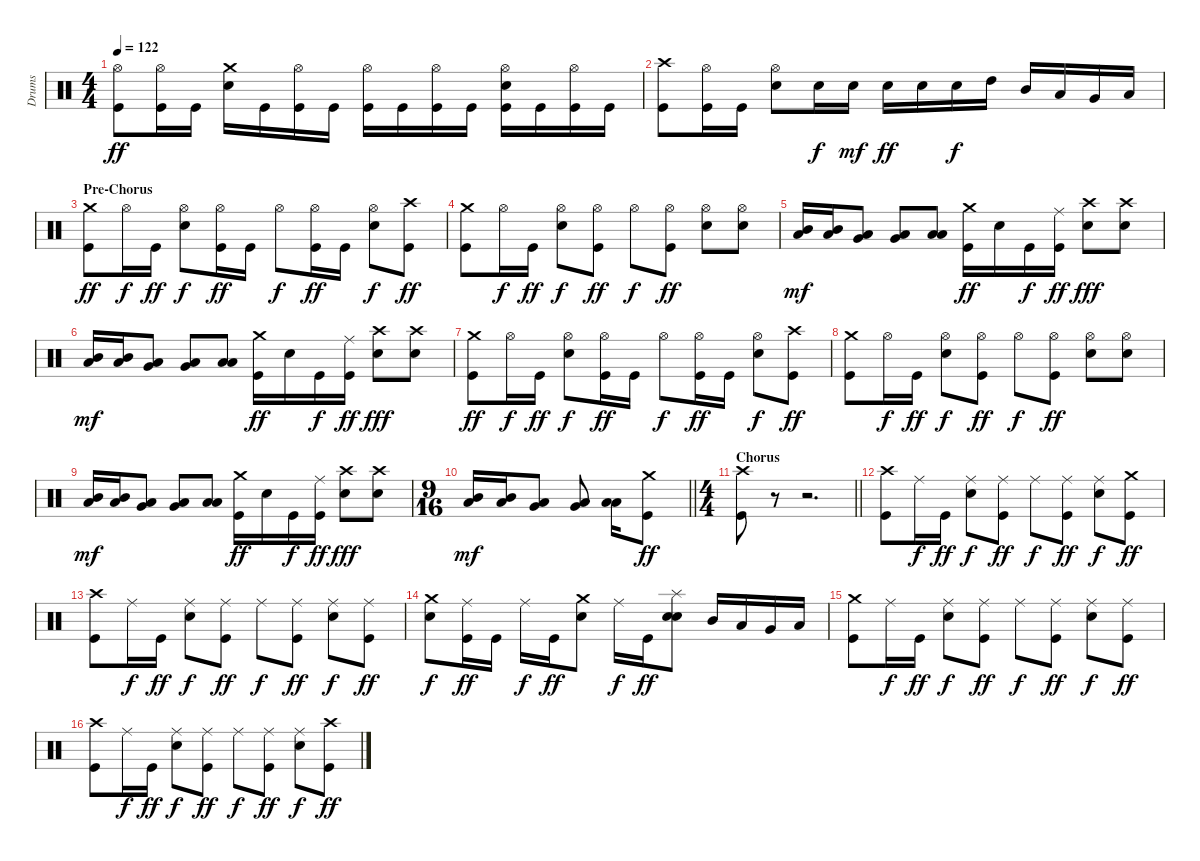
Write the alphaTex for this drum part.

\track ("Drums" "Drums") {instrument percussion}
\staff {score}
\articulation defaults
\ts (4 4)
\tempo 122
\clef neutral
\ks c
("Hi-Hat (open)" "Kick (hit)").8{dy ff} ("Hi-Hat (open)" "Kick (hit)").16 "Kick (hit)".16 ("Crash medium (hit)" "Snare (hit) 2").16 "Kick (hit)".16 ("Hi-Hat (open)" "Kick (hit)").16 "Kick (hit)".16 ("Hi-Hat (open)" "Kick (hit)").16 "Kick (hit)".16 ("Hi-Hat (open)" "Kick (hit)").16 "Kick (hit)".16 ("Hi-Hat (open)" "Snare (hit) 2" "Kick (hit)").16 "Kick (hit)".16 ("Hi-Hat (open)" "Kick (hit)").16 "Kick (hit)".16 |
("Crash high (hit)" "Kick (hit)").8 ("Hi-Hat (open)" "Kick (hit)").16 "Kick (hit)".16 ("Hi-Hat (open)" "Snare (hit) 2").8 "Snare (hit) 2".16{dy f} "Snare (hit) 2".16{dy mf} "Snare (hit) 2".16{dy ff} "Snare (hit) 2".16 "Snare (hit) 2".16{dy f} "High Tom (hit)".16 "Mid Tom (hit)".16 "Low Tom (hit)".16 "Very Low Tom (hit)".16 "Low Floor Tom (hit)".16 |
\section ("" "Pre-Chorus")
("Crash medium (hit)" "Kick (hit)").8{dy ff} "Hi-Hat (open)".16{dy f} "Kick (hit)".16{dy ff} ("Hi-Hat (open)" "Snare (hit) 2").8{dy f} ("Hi-Hat (open)" "Kick (hit)").16{dy ff} "Kick (hit)".16 "Hi-Hat (open)".8{dy f} ("Hi-Hat (open)" "Kick (hit)").16{dy ff} "Kick (hit)".16 ("Hi-Hat (open)" "Snare (hit) 2").8{dy f} ("Crash high (hit)" "Kick (hit)").8{dy ff} |
("Crash medium (hit)" "Kick (hit)").8 "Hi-Hat (open)".16{dy f} "Kick (hit)".16{dy ff} ("Hi-Hat (open)" "Snare (hit) 2").8{dy f} ("Hi-Hat (open)" "Kick (hit)").8{dy ff} "Hi-Hat (open)".8{dy f} ("Hi-Hat (open)" "Kick (hit)").8{dy ff} ("Hi-Hat (open)" "Snare (hit) 2").8 ("Hi-Hat (open)" "Snare (hit) 2").8 |
("Mid Tom (hit)" "Low Tom (hit)").16{dy mf} ("Mid Tom (hit)" "Low Tom (hit)").16 ("Low Tom (hit)" "Very Low Tom (hit)").8 ("Very Low Tom (hit)" "Low Floor Tom (hit)").8 ("Low Floor Tom (hit)" "Low Floor Tom (hit)").8 ("Crash medium (hit)" "Kick (hit)").16{dy ff} "Snare (hit) 2".16 "Kick (hit)".16{dy f} ("Ride (middle)" "Kick (hit)").16{dy ff} ("Crash high (hit)" "Snare (hit) 2").8{dy fff} ("Crash high (hit)" "Snare (hit) 2").8 |
("Mid Tom (hit)" "Low Tom (hit)").16{dy mf} ("Mid Tom (hit)" "Low Tom (hit)").16 ("Low Tom (hit)" "Very Low Tom (hit)").8 ("Very Low Tom (hit)" "Low Floor Tom (hit)").8 ("Low Floor Tom (hit)" "Low Floor Tom (hit)").8 ("Crash medium (hit)" "Kick (hit)").16{dy ff} "Snare (hit) 2".16 "Kick (hit)".16{dy f} ("Ride (middle)" "Kick (hit)").16{dy ff} ("Crash high (hit)" "Snare (hit) 2").8{dy fff} ("Crash high (hit)" "Snare (hit) 2").8 |
("Crash medium (hit)" "Kick (hit)").8{dy ff} "Hi-Hat (open)".16{dy f} "Kick (hit)".16{dy ff} ("Hi-Hat (open)" "Snare (hit) 2").8{dy f} ("Hi-Hat (open)" "Kick (hit)").16{dy ff} "Kick (hit)".16 "Hi-Hat (open)".8{dy f} ("Hi-Hat (open)" "Kick (hit)").16{dy ff} "Kick (hit)".16 ("Hi-Hat (open)" "Snare (hit) 2").8{dy f} ("Crash high (hit)" "Kick (hit)").8{dy ff} |
("Crash medium (hit)" "Kick (hit)").8 "Hi-Hat (open)".16{dy f} "Kick (hit)".16{dy ff} ("Hi-Hat (open)" "Snare (hit) 2").8{dy f} ("Hi-Hat (open)" "Kick (hit)").8{dy ff} "Hi-Hat (open)".8{dy f} ("Hi-Hat (open)" "Kick (hit)").8{dy ff} ("Hi-Hat (open)" "Snare (hit) 2").8 ("Hi-Hat (open)" "Snare (hit) 2").8 |
("Mid Tom (hit)" "Low Tom (hit)").16{dy mf} ("Mid Tom (hit)" "Low Tom (hit)").16 ("Low Tom (hit)" "Very Low Tom (hit)").8 ("Very Low Tom (hit)" "Low Floor Tom (hit)").8 ("Low Floor Tom (hit)" "Low Floor Tom (hit)").8 ("Crash medium (hit)" "Kick (hit)").16{dy ff} "Snare (hit) 2".16 "Kick (hit)".16{dy f} ("Ride (middle)" "Kick (hit)").16{dy ff} ("Crash high (hit)" "Snare (hit) 2").8{dy fff} ("Crash high (hit)" "Snare (hit) 2").8 |
\ts (9 16)
\barLineRight lightlight
("Mid Tom (hit)" "Low Tom (hit)").16{dy mf} ("Mid Tom (hit)" "Low Tom (hit)").16 ("Low Tom (hit)" "Very Low Tom (hit)").8 ("Very Low Tom (hit)" "Low Floor Tom (hit)").8 ("Low Floor Tom (hit)" "Low Floor Tom (hit)").16 ("Crash medium (hit)" "Kick (hit)").8{dy ff} |
\ts (4 4)
\section ("" "Chorus")
\barLineRight lightlight
("Crash high (hit)" "Kick (hit)").8 r.8 r.2{d} |
("Crash high (hit)" "Kick (hit)").8 "Ride (middle)".16{dy f} "Kick (hit)".16{dy ff} ("Ride (middle)" "Snare (hit) 2").8{dy f} ("Ride (middle)" "Kick (hit)").8{dy ff} "Ride (middle)".8{dy f} ("Ride (middle)" "Kick (hit)").8{dy ff} ("Ride (middle)" "Snare (hit) 2").8{dy f} ("Crash medium (hit)" "Kick (hit)").8{dy ff} |
("Crash high (hit)" "Kick (hit)").8 "Ride (middle)".16{dy f} "Kick (hit)".16{dy ff} ("Ride (middle)" "Snare (hit) 2").8{dy f} ("Ride (middle)" "Kick (hit)").8{dy ff} "Ride (middle)".8{dy f} ("Ride (middle)" "Kick (hit)").8{dy ff} ("Ride (middle)" "Snare (hit) 2").8{dy f} ("Ride (middle)" "Kick (hit)").8{dy ff} |
("Crash medium (hit)" "Snare (hit) 2").8{dy f} ("Ride (middle)" "Kick (hit)").16{dy ff} "Kick (hit)".16 "Ride (middle)".16{dy f} "Kick (hit)".16{dy ff} ("Crash medium (hit)" "Snare (hit) 2").8 "Ride (middle)".16{dy f} "Kick (hit)".16{dy ff} ("Splash (hit)" "Snare (hit) 2" "Snare (hit) 2").8 "Mid Tom (hit)".16 "Low Tom (hit)".16 "Very Low Tom (hit)".16 "Low Tom (hit)".16 |
("Crash medium (hit)" "Kick (hit)").8 "Ride (middle)".16{dy f} "Kick (hit)".16{dy ff} ("Ride (middle)" "Snare (hit) 2").8{dy f} ("Ride (middle)" "Kick (hit)").8{dy ff} "Ride (middle)".8{dy f} ("Ride (middle)" "Kick (hit)").8{dy ff} ("Ride (middle)" "Snare (hit) 2").8{dy f} ("Ride (middle)" "Kick (hit)").8{dy ff} |
("Crash high (hit)" "Kick (hit)").8 "Ride (middle)".16{dy f} "Kick (hit)".16{dy ff} ("Ride (middle)" "Snare (hit) 2").8{dy f} ("Ride (middle)" "Kick (hit)").8{dy ff} "Ride (middle)".8{dy f} ("Ride (middle)" "Kick (hit)").8{dy ff} ("Ride (middle)" "Snare (hit) 2").8{dy f} ("Crash high (hit)" "Kick (hit)").8{dy ff}
